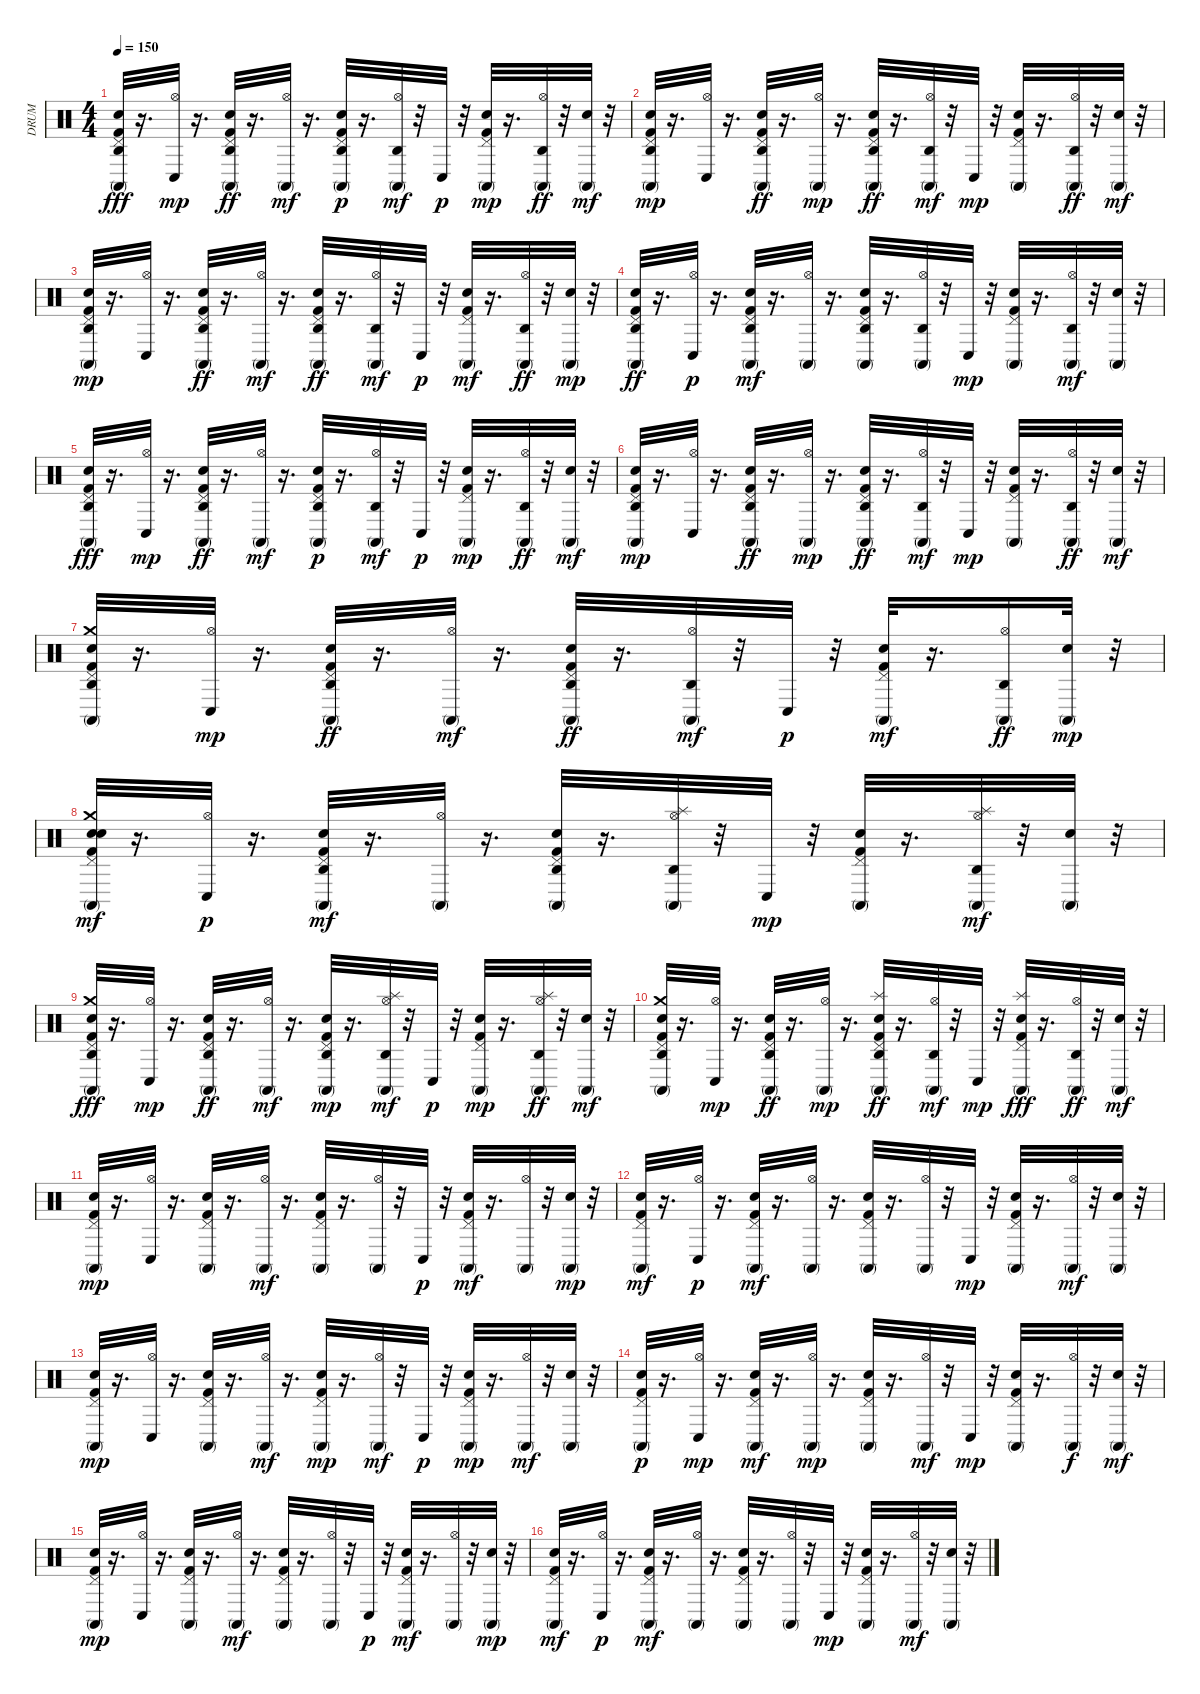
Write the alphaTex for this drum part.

\track ("DRUM" "DRUM") {instrument percussion}
\staff {score}
\articulation defaults
\ts (4 4)
\tempo 150
\clef neutral
\ks c
("Kick (hit) 2" "Hand Clap (hit)" "Pedal Hi-Hat (hit)" "Conga high (mute)" "Agogo high (hit)").32{dy fff} r.16{d} ("Hi-Hat (open)" "Conga low (hit)").32{dy mp} r.16{d} ("Kick (hit) 2" "Hand Clap (hit)" "Pedal Hi-Hat (hit)" "Conga high (mute)" "Agogo high (hit)").32{dy ff} r.16{d} ("Hi-Hat (open)" "Conga high (mute)").32{dy mf} r.16{d} ("Kick (hit) 2" "Hand Clap (hit)" "Pedal Hi-Hat (hit)" "Conga high (mute)" "Agogo high (hit)").32{dy p} r.16{d} ("Hi-Hat (open)" "Conga high (mute)" "Agogo high (hit)").32{dy mf} r.32 "Conga low (hit)".32{dy p} r.32 ("Kick (hit) 2" "Hand Clap (hit)" "Pedal Hi-Hat (hit)" "Conga high (mute)").32{dy mp} r.16{d} ("Hi-Hat (open)" "Conga high (mute)" "Agogo high (hit)").32{dy ff} r.32 ("Hand Clap (hit)" "Conga high (mute)").32{dy mf} r.32 |
("Kick (hit) 2" "Hand Clap (hit)" "Pedal Hi-Hat (hit)" "Conga high (mute)" "Agogo high (hit)").32{dy mp} r.16{d} ("Hi-Hat (open)" "Conga low (hit)").32 r.16{d} ("Kick (hit) 2" "Hand Clap (hit)" "Pedal Hi-Hat (hit)" "Conga high (mute)" "Agogo high (hit)").32{dy ff} r.16{d} ("Hi-Hat (open)" "Conga high (mute)").32{dy mp} r.16{d} ("Kick (hit) 2" "Hand Clap (hit)" "Pedal Hi-Hat (hit)" "Conga high (mute)" "Agogo high (hit)").32{dy ff} r.16{d} ("Hi-Hat (open)" "Conga high (mute)" "Agogo high (hit)").32{dy mf} r.32 "Conga low (hit)".32{dy mp} r.32 ("Kick (hit) 2" "Hand Clap (hit)" "Pedal Hi-Hat (hit)" "Conga high (mute)").32 r.16{d} ("Hi-Hat (open)" "Conga high (mute)" "Agogo high (hit)").32{dy ff} r.32 ("Hand Clap (hit)" "Conga high (mute)").32{dy mf} r.32 |
("Kick (hit) 2" "Hand Clap (hit)" "Pedal Hi-Hat (hit)" "Conga high (mute)" "Agogo high (hit)").32{dy mp} r.16{d} ("Hi-Hat (open)" "Conga low (hit)").32 r.16{d} ("Kick (hit) 2" "Hand Clap (hit)" "Pedal Hi-Hat (hit)" "Conga high (mute)" "Agogo high (hit)").32{dy ff} r.16{d} ("Hi-Hat (open)" "Conga high (mute)").32{dy mf} r.16{d} ("Kick (hit) 2" "Hand Clap (hit)" "Pedal Hi-Hat (hit)" "Conga high (mute)" "Agogo high (hit)").32{dy ff} r.16{d} ("Hi-Hat (open)" "Conga high (mute)" "Agogo high (hit)").32{dy mf} r.32 "Conga low (hit)".32{dy p} r.32 ("Kick (hit) 2" "Hand Clap (hit)" "Pedal Hi-Hat (hit)" "Conga high (mute)").32{dy mf} r.16{d} ("Hi-Hat (open)" "Conga high (mute)" "Agogo high (hit)").32{dy ff} r.32 ("Hand Clap (hit)" "Conga high (mute)").32{dy mp} r.32 |
("Kick (hit) 2" "Hand Clap (hit)" "Pedal Hi-Hat (hit)" "Conga high (mute)" "Agogo high (hit)").32{dy ff} r.16{d} ("Hi-Hat (open)" "Conga low (hit)").32{dy p} r.16{d} ("Kick (hit) 2" "Hand Clap (hit)" "Pedal Hi-Hat (hit)" "Conga high (mute)" "Agogo high (hit)").32{dy mf} r.16{d} ("Hi-Hat (open)" "Conga high (mute)").32 r.16{d} ("Kick (hit) 2" "Hand Clap (hit)" "Pedal Hi-Hat (hit)" "Conga high (mute)" "Agogo high (hit)").32 r.16{d} ("Hi-Hat (open)" "Conga high (mute)" "Agogo high (hit)").32 r.32 "Conga low (hit)".32{dy mp} r.32 ("Kick (hit) 2" "Hand Clap (hit)" "Pedal Hi-Hat (hit)" "Conga high (mute)").32 r.16{d} ("Hi-Hat (open)" "Conga high (mute)" "Agogo high (hit)").32{dy mf} r.32 ("Hand Clap (hit)" "Conga high (mute)").32 r.32 |
("Kick (hit) 2" "Hand Clap (hit)" "Pedal Hi-Hat (hit)" "Conga high (mute)" "Agogo high (hit)").32{dy fff} r.16{d} ("Hi-Hat (open)" "Conga low (hit)").32{dy mp} r.16{d} ("Kick (hit) 2" "Hand Clap (hit)" "Pedal Hi-Hat (hit)" "Conga high (mute)" "Agogo high (hit)").32{dy ff} r.16{d} ("Hi-Hat (open)" "Conga high (mute)").32{dy mf} r.16{d} ("Kick (hit) 2" "Hand Clap (hit)" "Pedal Hi-Hat (hit)" "Conga high (mute)" "Agogo high (hit)").32{dy p} r.16{d} ("Hi-Hat (open)" "Conga high (mute)" "Agogo high (hit)").32{dy mf} r.32 "Conga low (hit)".32{dy p} r.32 ("Kick (hit) 2" "Hand Clap (hit)" "Pedal Hi-Hat (hit)" "Conga high (mute)").32{dy mp} r.16{d} ("Hi-Hat (open)" "Conga high (mute)" "Agogo high (hit)").32{dy ff} r.32 ("Hand Clap (hit)" "Conga high (mute)").32{dy mf} r.32 |
("Kick (hit) 2" "Hand Clap (hit)" "Pedal Hi-Hat (hit)" "Conga high (mute)" "Agogo high (hit)").32{dy mp} r.16{d} ("Hi-Hat (open)" "Conga low (hit)").32 r.16{d} ("Kick (hit) 2" "Hand Clap (hit)" "Pedal Hi-Hat (hit)" "Conga high (mute)" "Agogo high (hit)").32{dy ff} r.16{d} ("Hi-Hat (open)" "Conga high (mute)").32{dy mp} r.16{d} ("Kick (hit) 2" "Hand Clap (hit)" "Pedal Hi-Hat (hit)" "Conga high (mute)" "Agogo high (hit)").32{dy ff} r.16{d} ("Hi-Hat (open)" "Conga high (mute)" "Agogo high (hit)").32{dy mf} r.32 "Conga low (hit)".32{dy mp} r.32 ("Kick (hit) 2" "Hand Clap (hit)" "Pedal Hi-Hat (hit)" "Conga high (mute)").32 r.16{d} ("Hi-Hat (open)" "Conga high (mute)" "Agogo high (hit)").32{dy ff} r.32 ("Hand Clap (hit)" "Conga high (mute)").32{dy mf} r.32 |
("Kick (hit) 2" "Hand Clap (hit)" "Pedal Hi-Hat (hit)" "Crash medium (hit)" "Conga high (mute)" "Agogo high (hit)").32 r.16{d} ("Hi-Hat (open)" "Conga low (hit)").32{dy mp} r.16{d} ("Kick (hit) 2" "Hand Clap (hit)" "Pedal Hi-Hat (hit)" "Conga high (mute)" "Agogo high (hit)").32{dy ff} r.16{d} ("Hi-Hat (open)" "Conga high (mute)").32{dy mf} r.16{d} ("Kick (hit) 2" "Hand Clap (hit)" "Pedal Hi-Hat (hit)" "Conga high (mute)" "Agogo high (hit)").32{dy ff} r.16{d} ("Hi-Hat (open)" "Conga high (mute)" "Agogo high (hit)").32{dy mf} r.32 "Conga low (hit)".32{dy p} r.32 ("Kick (hit) 2" "Hand Clap (hit)" "Pedal Hi-Hat (hit)" "Conga high (mute)").32{dy mf} r.16{d} ("Hi-Hat (open)" "Conga high (mute)" "Agogo high (hit)").16{dy ff} ("Hand Clap (hit)" "Conga high (mute)").32{dy mp} r.32 |
("Kick (hit) 2" "Hand Clap (hit)" "Hand Clap (hit)" "Pedal Hi-Hat (hit)" "Crash medium (hit)" "Conga high (mute)").32{dy mf} r.16{d} ("Hi-Hat (open)" "Conga low (hit)").32{dy p} r.16{d} ("Kick (hit) 2" "Hand Clap (hit)" "Pedal Hi-Hat (hit)" "Conga high (mute)" "Agogo high (hit)").32{dy mf} r.16{d} ("Hi-Hat (open)" "Conga high (mute)").32 r.16{d} ("Kick (hit) 2" "Hand Clap (hit)" "Pedal Hi-Hat (hit)" "Conga high (mute)" "Agogo high (hit)").32 r.16{d} ("Hi-Hat (open)" "Splash (hit)" "Conga high (mute)" "Agogo high (hit)").32 r.32 "Conga low (hit)".32{dy mp} r.32 ("Kick (hit) 2" "Hand Clap (hit)" "Pedal Hi-Hat (hit)" "Conga high (mute)").32 r.16{d} ("Hi-Hat (open)" "Splash (hit)" "Conga high (mute)" "Agogo high (hit)").32{dy mf} r.32 ("Hand Clap (hit)" "Conga high (mute)").32 r.32 |
("Kick (hit) 2" "Hand Clap (hit)" "Pedal Hi-Hat (hit)" "Crash medium (hit)" "Conga high (mute)" "Agogo high (hit)").32{dy fff} r.16{d} ("Hi-Hat (open)" "Conga low (hit)").32{dy mp} r.16{d} ("Kick (hit) 2" "Hand Clap (hit)" "Pedal Hi-Hat (hit)" "Conga high (mute)" "Agogo high (hit)").32{dy ff} r.16{d} ("Hi-Hat (open)" "Conga high (mute)").32{dy mf} r.16{d} ("Kick (hit) 2" "Hand Clap (hit)" "Pedal Hi-Hat (hit)" "Conga high (mute)" "Agogo high (hit)").32{dy mp} r.16{d} ("Hi-Hat (open)" "Splash (hit)" "Conga high (mute)" "Agogo high (hit)").32{dy mf} r.32 "Conga low (hit)".32{dy p} r.32 ("Kick (hit) 2" "Hand Clap (hit)" "Pedal Hi-Hat (hit)" "Conga high (mute)").32{dy mp} r.16{d} ("Hi-Hat (open)" "Splash (hit)" "Conga high (mute)" "Agogo high (hit)").32{dy ff} r.32 ("Hand Clap (hit)" "Conga high (mute)").32{dy mf} r.32 |
("Kick (hit) 2" "Hand Clap (hit)" "Pedal Hi-Hat (hit)" "Crash medium (hit)" "Conga high (mute)" "Agogo high (hit)").32 r.16{d} ("Hi-Hat (open)" "Conga low (hit)").32{dy mp} r.16{d} ("Kick (hit) 2" "Hand Clap (hit)" "Pedal Hi-Hat (hit)" "Conga high (mute)" "Agogo high (hit)").32{dy ff} r.16{d} ("Hi-Hat (open)" "Conga high (mute)").32{dy mp} r.16{d} ("Kick (hit) 2" "Hand Clap (hit)" "Pedal Hi-Hat (hit)" "Splash (hit)" "Conga high (mute)" "Agogo high (hit)").32{dy ff} r.16{d} ("Hi-Hat (open)" "Conga high (mute)" "Agogo high (hit)").32{dy mf} r.32 "Conga low (hit)".32{dy mp} r.32 ("Kick (hit) 2" "Hand Clap (hit)" "Pedal Hi-Hat (hit)" "Splash (hit)" "Conga high (mute)").32{dy fff} r.16{d} ("Hi-Hat (open)" "Conga high (mute)" "Agogo high (hit)").32{dy ff} r.32 ("Hand Clap (hit)" "Conga high (mute)").32{dy mf} r.32 |
("Kick (hit) 2" "Hand Clap (hit)" "Pedal Hi-Hat (hit)" "Conga high (mute)").32{dy mp} r.16{d} ("Hi-Hat (open)" "Conga low (hit)").32 r.16{d} ("Kick (hit) 2" "Hand Clap (hit)" "Pedal Hi-Hat (hit)" "Conga high (mute)").32 r.16{d} ("Hi-Hat (open)" "Conga high (mute)").32{dy mf} r.16{d} ("Kick (hit) 2" "Hand Clap (hit)" "Pedal Hi-Hat (hit)" "Conga high (mute)").32 r.16{d} ("Hi-Hat (open)" "Conga high (mute)").32 r.32 "Conga low (hit)".32{dy p} r.32 ("Kick (hit) 2" "Hand Clap (hit)" "Pedal Hi-Hat (hit)" "Conga high (mute)").32{dy mf} r.16{d} ("Hi-Hat (open)" "Conga high (mute)").32 r.32 ("Hand Clap (hit)" "Conga high (mute)").32{dy mp} r.32 |
("Kick (hit) 2" "Hand Clap (hit)" "Pedal Hi-Hat (hit)" "Conga high (mute)").32{dy mf} r.16{d} ("Hi-Hat (open)" "Conga low (hit)").32{dy p} r.16{d} ("Kick (hit) 2" "Hand Clap (hit)" "Pedal Hi-Hat (hit)" "Conga high (mute)").32{dy mf} r.16{d} ("Hi-Hat (open)" "Conga high (mute)").32 r.16{d} ("Kick (hit) 2" "Hand Clap (hit)" "Pedal Hi-Hat (hit)" "Conga high (mute)").32 r.16{d} ("Hi-Hat (open)" "Conga high (mute)").32 r.32 "Conga low (hit)".32{dy mp} r.32 ("Kick (hit) 2" "Hand Clap (hit)" "Pedal Hi-Hat (hit)" "Conga high (mute)").32 r.16{d} ("Hi-Hat (open)" "Conga high (mute)").32{dy mf} r.32 ("Hand Clap (hit)" "Conga high (mute)").32 r.32 |
("Kick (hit) 2" "Hand Clap (hit)" "Pedal Hi-Hat (hit)" "Conga high (mute)").32{dy mp} r.16{d} ("Hi-Hat (open)" "Conga low (hit)").32 r.16{d} ("Kick (hit) 2" "Hand Clap (hit)" "Pedal Hi-Hat (hit)" "Conga high (mute)").32 r.16{d} ("Hi-Hat (open)" "Conga high (mute)").32{dy mf} r.16{d} ("Kick (hit) 2" "Hand Clap (hit)" "Pedal Hi-Hat (hit)" "Conga high (mute)").32{dy mp} r.16{d} ("Hi-Hat (open)" "Conga high (mute)").32{dy mf} r.32 "Conga low (hit)".32{dy p} r.32 ("Kick (hit) 2" "Hand Clap (hit)" "Pedal Hi-Hat (hit)" "Conga high (mute)").32{dy mp} r.16{d} ("Hi-Hat (open)" "Conga high (mute)").32{dy mf} r.32 ("Hand Clap (hit)" "Conga high (mute)").32 r.32 |
("Kick (hit) 2" "Hand Clap (hit)" "Pedal Hi-Hat (hit)" "Conga high (mute)").32{dy p} r.16{d} ("Hi-Hat (open)" "Conga low (hit)").32{dy mp} r.16{d} ("Kick (hit) 2" "Hand Clap (hit)" "Pedal Hi-Hat (hit)" "Conga high (mute)").32{dy mf} r.16{d} ("Hi-Hat (open)" "Conga high (mute)").32{dy mp} r.16{d} ("Kick (hit) 2" "Hand Clap (hit)" "Pedal Hi-Hat (hit)" "Conga high (mute)").32 r.16{d} ("Hi-Hat (open)" "Conga high (mute)").32{dy mf} r.32 "Conga low (hit)".32{dy mp} r.32 ("Kick (hit) 2" "Hand Clap (hit)" "Pedal Hi-Hat (hit)" "Conga high (mute)").32 r.16{d} ("Hi-Hat (open)" "Conga high (mute)").32{dy f} r.32 ("Hand Clap (hit)" "Conga high (mute)").32{dy mf} r.32 |
("Kick (hit) 2" "Hand Clap (hit)" "Pedal Hi-Hat (hit)" "Conga high (mute)").32{dy mp} r.16{d} ("Hi-Hat (open)" "Conga low (hit)").32 r.16{d} ("Kick (hit) 2" "Hand Clap (hit)" "Pedal Hi-Hat (hit)" "Conga high (mute)").32 r.16{d} ("Hi-Hat (open)" "Conga high (mute)").32{dy mf} r.16{d} ("Kick (hit) 2" "Hand Clap (hit)" "Pedal Hi-Hat (hit)" "Conga high (mute)").32 r.16{d} ("Hi-Hat (open)" "Conga high (mute)").32 r.32 "Conga low (hit)".32{dy p} r.32 ("Kick (hit) 2" "Hand Clap (hit)" "Pedal Hi-Hat (hit)" "Conga high (mute)").32{dy mf} r.16{d} ("Hi-Hat (open)" "Conga high (mute)").32 r.32 ("Hand Clap (hit)" "Conga high (mute)").32{dy mp} r.32 |
("Kick (hit) 2" "Hand Clap (hit)" "Pedal Hi-Hat (hit)" "Conga high (mute)").32{dy mf} r.16{d} ("Hi-Hat (open)" "Conga low (hit)").32{dy p} r.16{d} ("Kick (hit) 2" "Hand Clap (hit)" "Pedal Hi-Hat (hit)" "Conga high (mute)").32{dy mf} r.16{d} ("Hi-Hat (open)" "Conga high (mute)").32 r.16{d} ("Kick (hit) 2" "Hand Clap (hit)" "Pedal Hi-Hat (hit)" "Conga high (mute)").32 r.16{d} ("Hi-Hat (open)" "Conga high (mute)").32 r.32 "Conga low (hit)".32{dy mp} r.32 ("Kick (hit) 2" "Hand Clap (hit)" "Pedal Hi-Hat (hit)" "Conga high (mute)").32 r.16{d} ("Hi-Hat (open)" "Conga high (mute)").32{dy mf} r.32 ("Hand Clap (hit)" "Conga high (mute)").32 r.32
